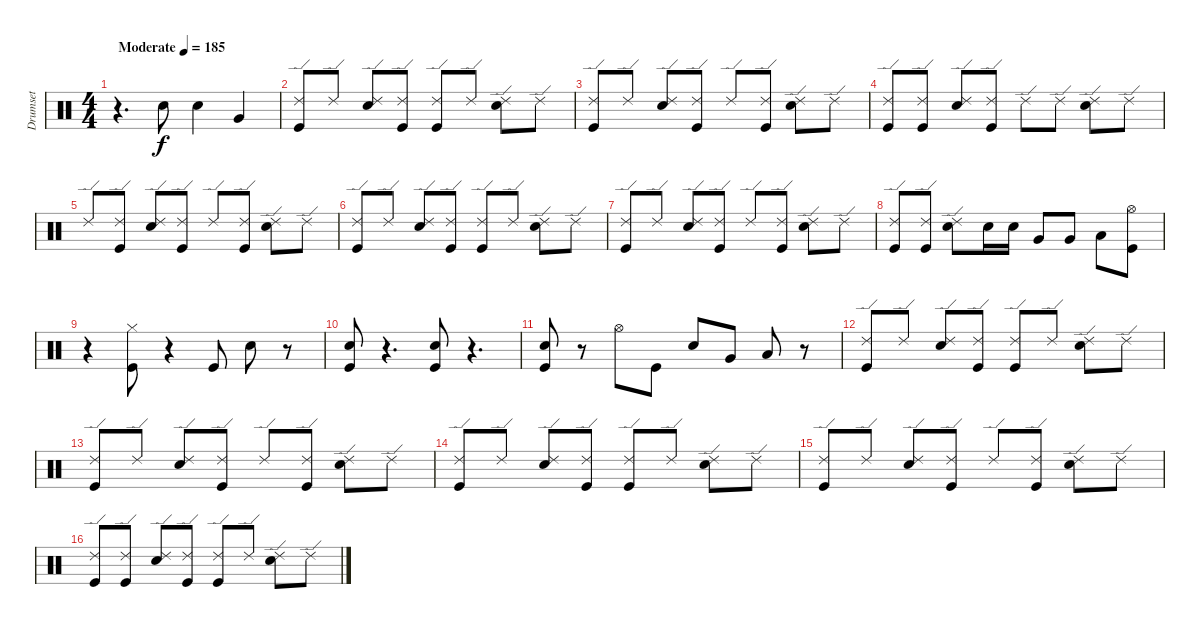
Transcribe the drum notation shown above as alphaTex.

\track ("Drumset" "Drumset") {instrument percussion}
\staff {score}
\articulation defaults
\ts (4 4)
\tempo (185 "Moderate")
\clef neutral
\ks c
r.4{d dy f} "Electric Snare (hit)".8 "Electric Snare (hit)".4 "Very Low Tom (hit)".4 |
("Kick (hit)" "Ride (edge) 2").8 "Ride (edge) 2".8 ("Ride (edge) 2" "Snare (hit) 2").8 ("Kick (hit)" "Ride (edge) 2").8 ("Kick (hit)" "Ride (edge) 2").8 "Ride (edge) 2".8 ("Snare (hit) 2" "Ride (edge) 2").8 "Ride (edge) 2".8 |
("Kick (hit)" "Ride (edge) 2").8 "Ride (edge) 2".8 ("Snare (hit) 2" "Ride (edge) 2").8 ("Kick (hit)" "Ride (edge) 2").8 "Ride (edge) 2".8 ("Kick (hit)" "Ride (edge) 2").8 ("Snare (hit) 2" "Ride (edge) 2").8 "Ride (edge) 2".8 |
("Kick (hit)" "Ride (edge) 2").8 ("Kick (hit)" "Ride (edge) 2").8 ("Ride (edge) 2" "Snare (hit) 2").8 ("Kick (hit)" "Ride (edge) 2").8 "Ride (edge) 2".8 "Ride (edge) 2".8 ("Ride (edge) 2" "Snare (hit) 2").8 "Ride (edge) 2".8 |
"Ride (edge) 2".8 ("Kick (hit)" "Ride (edge) 2").8 ("Snare (hit) 2" "Ride (edge) 2").8 ("Kick (hit)" "Ride (edge) 2").8 "Ride (edge) 2".8 ("Kick (hit)" "Ride (edge) 2").8 ("Snare (hit) 2" "Ride (edge) 2").8 "Ride (edge) 2".8 |
("Kick (hit)" "Ride (edge) 2").8 "Ride (edge) 2".8 ("Snare (hit) 2" "Ride (edge) 2").8 ("Kick (hit)" "Ride (edge) 2").8 ("Kick (hit)" "Ride (edge) 2").8 "Ride (edge) 2".8 ("Snare (hit) 2" "Ride (edge) 2").8 "Ride (edge) 2".8 |
("Kick (hit)" "Ride (edge) 2").8 "Ride (edge) 2".8 ("Snare (hit) 2" "Ride (edge) 2").8 ("Kick (hit)" "Ride (edge) 2").8 "Ride (edge) 2".8 ("Kick (hit)" "Ride (edge) 2").8 ("Snare (hit) 2" "Ride (edge) 2").8 "Ride (edge) 2".8 |
("Ride (edge) 2" "Kick (hit)").8 ("Ride (edge) 2" "Kick (hit)").8 ("Ride (edge) 2" "Snare (hit) 2").8 "Snare (hit) 2".16 "Snare (hit) 2".16 "Very Low Tom (hit)".8 "Very Low Tom (hit)".8 "Low Floor Tom (hit)".8 ("Hi-Hat (open)" "Kick (hit)").8 |
r.4 ("Kick (hit)" "Hi-Hat (closed)").8 r.4 "Kick (hit)".8 "Snare (hit) 2".8 r.8 |
("Kick (hit)" "Snare (hit) 2").8 r.4{d} ("Kick (hit)" "Snare (hit) 2").8 r.4{d} |
("Snare (hit) 2" "Kick (hit)").8 r.8 "Hi-Hat (open)".8 "Kick (hit)".8 "Snare (hit) 2".8 "Very Low Tom (hit)".8 "Low Floor Tom (hit)".8 r.8 |
("Kick (hit)" "Ride (edge) 2").8 "Ride (edge) 2".8 ("Snare (hit) 2" "Ride (edge) 2").8 ("Kick (hit)" "Ride (edge) 2").8 ("Kick (hit)" "Ride (edge) 2").8 "Ride (edge) 2".8 ("Snare (hit) 2" "Ride (edge) 2").8 "Ride (edge) 2".8 |
("Kick (hit)" "Ride (edge) 2").8 "Ride (edge) 2".8 ("Snare (hit) 2" "Ride (edge) 2").8 ("Kick (hit)" "Ride (edge) 2").8 "Ride (edge) 2".8 ("Kick (hit)" "Ride (edge) 2").8 ("Snare (hit) 2" "Ride (edge) 2").8 "Ride (edge) 2".8 |
("Kick (hit)" "Ride (edge) 2").8 "Ride (edge) 2".8 ("Snare (hit) 2" "Ride (edge) 2").8 ("Kick (hit)" "Ride (edge) 2").8 ("Kick (hit)" "Ride (edge) 2").8 "Ride (edge) 2".8 ("Snare (hit) 2" "Ride (edge) 2").8 "Ride (edge) 2".8 |
("Kick (hit)" "Ride (edge) 2").8 "Ride (edge) 2".8 ("Snare (hit) 2" "Ride (edge) 2").8 ("Kick (hit)" "Ride (edge) 2").8 "Ride (edge) 2".8 ("Kick (hit)" "Ride (edge) 2").8 ("Snare (hit) 2" "Ride (edge) 2").8 "Ride (edge) 2".8 |
("Kick (hit)" "Ride (edge) 2").8 ("Kick (hit)" "Ride (edge) 2").8 ("Snare (hit) 2" "Ride (edge) 2").8 ("Kick (hit)" "Ride (edge) 2").8 ("Kick (hit)" "Ride (edge) 2").8 "Ride (edge) 2".8 ("Snare (hit) 2" "Ride (edge) 2").8 "Ride (edge) 2".8
